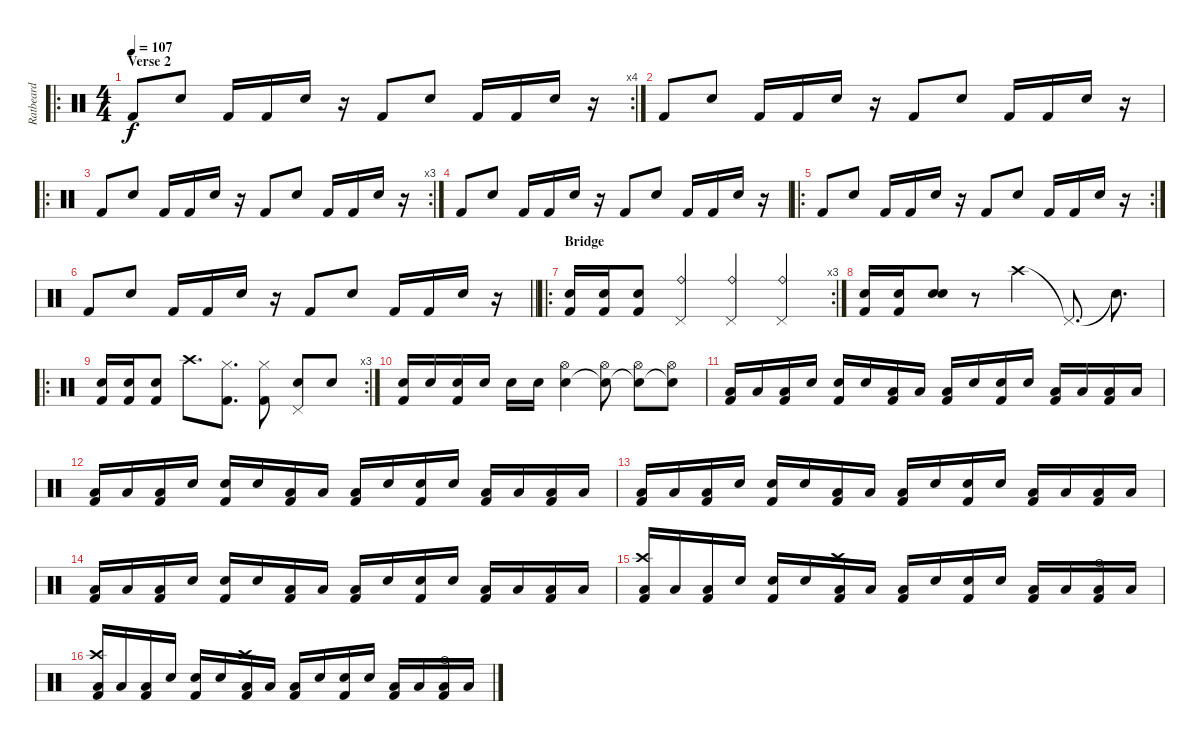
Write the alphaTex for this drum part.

\track ("Ratbeard" "Ratbeard") {instrument percussion}
\staff {score}
\articulation defaults
\ro
\rc 4
\ts (4 4)
\section ("" "Verse 2")
\tempo 107
\clef neutral
\ks c "Kick (hit) 2".8{dy f} "Snare (hit) 2".8 "Kick (hit) 2".16 "Kick (hit) 2".16 "Snare (hit) 2".16
r.16 "Kick (hit) 2".8 "Snare (hit) 2".8 "Kick (hit) 2".16 "Kick (hit) 2".16 "Snare (hit) 2".16 r.16 |
"Kick (hit) 2".8 "Snare (hit) 2".8 "Kick (hit) 2".16 "Kick (hit) 2".16 "Snare (hit) 2".16 r.16 "Kick (hit) 2".8 "Snare (hit) 2".8 "Kick (hit) 2".16 "Kick (hit) 2".16 "Snare (hit) 2".16 r.16 |
\ro
\rc 3 "Kick (hit) 2".8 "Snare (hit) 2".8 "Kick (hit) 2".16 "Kick (hit) 2".16 "Snare (hit) 2".16
r.16 "Kick (hit) 2".8 "Snare (hit) 2".8 "Kick (hit) 2".16 "Kick (hit) 2".16 "Snare (hit) 2".16 r.16 |
"Kick (hit) 2".8 "Snare (hit) 2".8 "Kick (hit) 2".16 "Kick (hit) 2".16 "Snare (hit) 2".16 r.16 "Kick (hit) 2".8 "Snare (hit) 2".8 "Kick (hit) 2".16 "Kick (hit) 2".16 "Snare (hit) 2".16 r.16 |
\ro
\rc 2 "Kick (hit) 2".8 "Snare (hit) 2".8 "Kick (hit) 2".16 "Kick (hit) 2".16 "Snare (hit) 2".16
r.16 "Kick (hit) 2".8 "Snare (hit) 2".8 "Kick (hit) 2".16 "Kick (hit) 2".16 "Snare (hit) 2".16 r.16 |
\barLineRight lightlight "Kick (hit) 2".8 "Snare (hit) 2".8 "Kick (hit) 2".16 "Kick (hit) 2".16 "Snare (hit) 2".16
r.16 "Kick (hit) 2".8 "Snare (hit) 2".8 "Kick (hit) 2".16 "Kick (hit) 2".16 "Snare (hit) 2".16 r.16 |
\ro
\rc 3
\section ("" "Bridge")
("Kick (hit) 2" "Snare (hit) 2").16 ("Kick (hit) 2" "Snare (hit) 2").16 ("Kick (hit) 2" "Snare (hit) 2").8 ("Ride (bell)" "Pedal Hi-Hat (hit)").4 ("Ride (bell)" "Pedal Hi-Hat (hit)").4 ("Ride (bell)" "Pedal Hi-Hat (hit)").4 |
("Kick (hit) 2" "Snare (hit) 2").16 ("Kick (hit) 2" "Snare (hit) 2").16 ("Snare (hit) 2" "Snare (hit) 2").8 r.8 "Crash high (hit)".4 "Pedal Hi-Hat (hit)"{t}.8{d} "Snare (hit)"{t}.8{d} |
\ro
\rc 3
("Kick (hit) 2" "Snare (hit) 2").16 ("Kick (hit) 2" "Snare (hit) 2").16 ("Kick (hit) 2" "Snare (hit) 2").8 "Crash high (hit)".8{d} ("Kick (hit) 2" "Hi-Hat (closed)").8{d} ("Kick (hit) 2" "Hi-Hat (closed)").8 ("Snare (hit) 2" "Pedal Hi-Hat (hit)").8 "Snare (hit) 2".8 |
("Kick (hit) 2" "Snare (hit) 2").16 "Snare (hit) 2".16 ("Kick (hit) 2" "Snare (hit) 2").16 "Snare (hit) 2".16 "Snare (hit) 2".16 "Snare (hit) 2".16 ("Snare (hit) 2" "Hi-Hat (open)").4 ("Snare (hit)"{t} "Hi-Hat (open)").8 ("Snare (hit)"{t} "Hi-Hat (open)").8 ("Snare (hit)"{t} "Hi-Hat (open)").8 |
("Kick (hit) 2" "Low Tom (hit)").16 "Low Tom (hit)".16 ("Kick (hit) 2" "Low Tom (hit)").16 "Snare (hit) 2".16 ("Kick (hit) 2" "Snare (hit) 2").16 "Snare (hit) 2".16 ("Kick (hit) 2" "Low Tom (hit)").16 "Low Tom (hit)".16 ("Kick (hit) 2" "Low Tom (hit)").16 "Snare (hit) 2".16 ("Kick (hit) 2" "Snare (hit) 2").16 "Snare (hit) 2".16 ("Kick (hit) 2" "Low Tom (hit)").16 "Low Tom (hit)".16 ("Kick (hit) 2" "Low Tom (hit)").16 "Low Tom (hit)".16 |
("Kick (hit) 2" "Low Tom (hit)").16 "Low Tom (hit)".16 ("Kick (hit) 2" "Low Tom (hit)").16 "Snare (hit) 2".16 ("Kick (hit) 2" "Snare (hit) 2").16 "Snare (hit) 2".16 ("Kick (hit) 2" "Low Tom (hit)").16 "Low Tom (hit)".16 ("Kick (hit) 2" "Low Tom (hit)").16 "Snare (hit) 2".16 ("Kick (hit) 2" "Snare (hit) 2").16 "Snare (hit) 2".16 ("Kick (hit) 2" "Low Tom (hit)").16 "Low Tom (hit)".16 ("Kick (hit) 2" "Low Tom (hit)").16 "Low Tom (hit)".16 |
("Kick (hit) 2" "Low Tom (hit)").16 "Low Tom (hit)".16 ("Kick (hit) 2" "Low Tom (hit)").16 "Snare (hit) 2".16 ("Kick (hit) 2" "Snare (hit) 2").16 "Snare (hit) 2".16 ("Kick (hit) 2" "Low Tom (hit)").16 "Low Tom (hit)".16 ("Kick (hit) 2" "Low Tom (hit)").16 "Snare (hit) 2".16 ("Kick (hit) 2" "Snare (hit) 2").16 "Snare (hit) 2".16 ("Kick (hit) 2" "Low Tom (hit)").16 "Low Tom (hit)".16 ("Kick (hit) 2" "Low Tom (hit)").16 "Low Tom (hit)".16 |
("Kick (hit) 2" "Low Tom (hit)").16 "Low Tom (hit)".16 ("Kick (hit) 2" "Low Tom (hit)").16 "Snare (hit) 2".16 ("Kick (hit) 2" "Snare (hit) 2").16 "Snare (hit) 2".16 ("Kick (hit) 2" "Low Tom (hit)").16 "Low Tom (hit)".16 ("Kick (hit) 2" "Low Tom (hit)").16 "Snare (hit) 2".16 ("Kick (hit) 2" "Snare (hit) 2").16 "Snare (hit) 2".16 ("Kick (hit) 2" "Low Tom (hit)").16 "Low Tom (hit)".16 ("Kick (hit) 2" "Low Tom (hit)").16 "Low Tom (hit)".16 |
("Kick (hit) 2" "Low Tom (hit)" "Crash high (hit)").16 "Low Tom (hit)".16 ("Kick (hit) 2" "Low Tom (hit)").16 "Snare (hit) 2".16 ("Kick (hit) 2" "Snare (hit) 2").16 "Snare (hit) 2".16 ("Kick (hit) 2" "Low Tom (hit)" "Crash high (hit)").16 "Low Tom (hit)".16 ("Kick (hit) 2" "Low Tom (hit)").16 "Snare (hit) 2".16 ("Kick (hit) 2" "Snare (hit) 2").16 "Snare (hit) 2".16 ("Kick (hit) 2" "Low Tom (hit)").16 "Low Tom (hit)".16 ("Kick (hit) 2" "Low Tom (hit)" "Hi-Hat (open)").16 "Low Tom (hit)".16 |
("Kick (hit) 2" "Low Tom (hit)" "Crash high (hit)").16 "Low Tom (hit)".16 ("Kick (hit) 2" "Low Tom (hit)").16 "Snare (hit) 2".16 ("Kick (hit) 2" "Snare (hit) 2").16 "Snare (hit) 2".16 ("Kick (hit) 2" "Low Tom (hit)" "Crash high (hit)").16 "Low Tom (hit)".16 ("Kick (hit) 2" "Low Tom (hit)").16 "Snare (hit) 2".16 ("Kick (hit) 2" "Snare (hit) 2").16 "Snare (hit) 2".16 ("Kick (hit) 2" "Low Tom (hit)").16 "Low Tom (hit)".16 ("Kick (hit) 2" "Low Tom (hit)" "Hi-Hat (open)").16 "Low Tom (hit)".16
